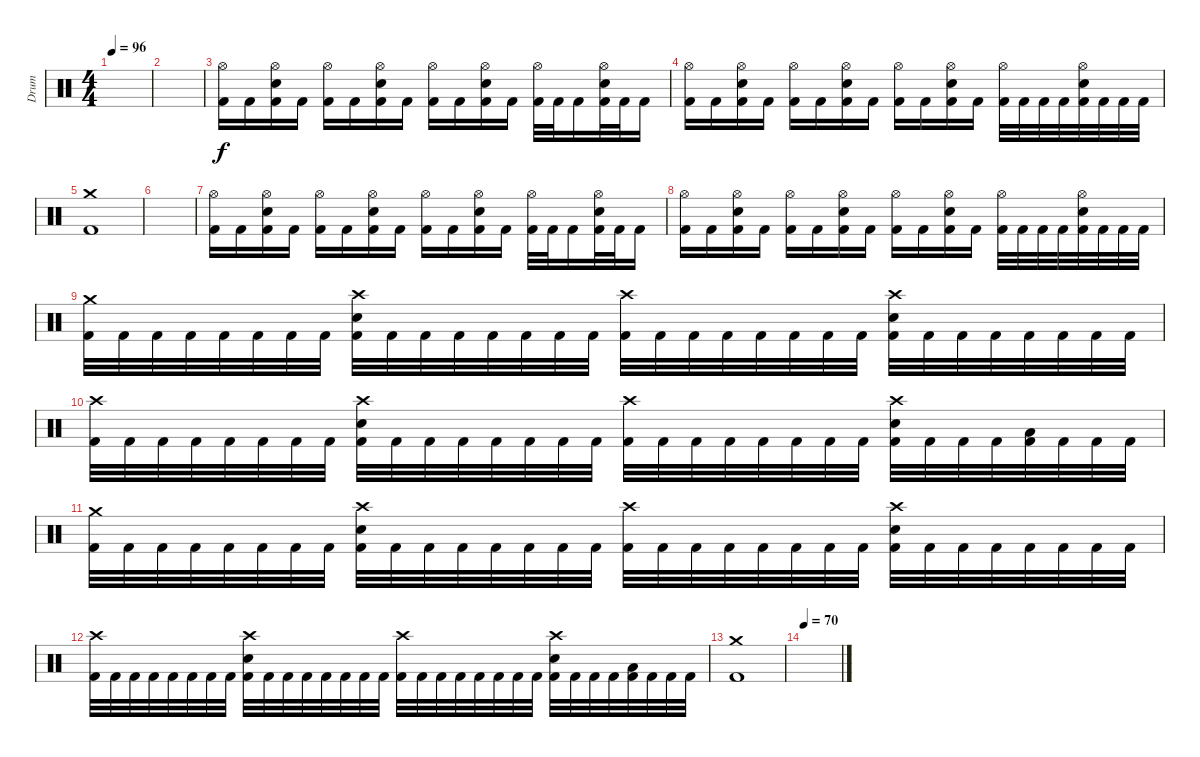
\track ("Drum" "Drum") {instrument percussion}
\staff {score}
\articulation defaults
\ts (4 4)
\tempo 96
\clef neutral
\ks c
|
|
("Hi-Hat (open)" "Kick (hit) 2").16 "Kick (hit) 2".16 ("Hi-Hat (open)" "Snare (hit) 2" "Kick (hit) 2").16 "Kick (hit) 2".16 ("Hi-Hat (open)" "Kick (hit) 2").16 "Kick (hit) 2".16 ("Hi-Hat (open)" "Snare (hit) 2" "Kick (hit) 2").16 "Kick (hit) 2".16 ("Hi-Hat (open)" "Kick (hit) 2").16 "Kick (hit) 2".16 ("Hi-Hat (open)" "Snare (hit) 2" "Kick (hit) 2").16 "Kick (hit) 2".16 ("Hi-Hat (open)" "Kick (hit) 2").32 "Kick (hit) 2".32 "Kick (hit) 2".16 ("Hi-Hat (open)" "Snare (hit) 2" "Kick (hit) 2").32 "Kick (hit) 2".32 "Kick (hit) 2".16 |
("Hi-Hat (open)" "Kick (hit) 2").16 "Kick (hit) 2".16 ("Hi-Hat (open)" "Snare (hit) 2" "Kick (hit) 2").16 "Kick (hit) 2".16 ("Hi-Hat (open)" "Kick (hit) 2").16 "Kick (hit) 2".16 ("Hi-Hat (open)" "Snare (hit) 2" "Kick (hit) 2").16 "Kick (hit) 2".16 ("Hi-Hat (open)" "Kick (hit) 2").16 "Kick (hit) 2".16 ("Hi-Hat (open)" "Snare (hit) 2" "Kick (hit) 2").16 "Kick (hit) 2".16 ("Hi-Hat (open)" "Kick (hit) 2").32 "Kick (hit) 2".32 "Kick (hit) 2".32 "Kick (hit) 2".32 ("Hi-Hat (open)" "Snare (hit) 2" "Kick (hit) 2").32 "Kick (hit) 2".32 "Kick (hit) 2".32 "Kick (hit) 2".32 |
("Crash medium (hit)" "Kick (hit) 2").1 |
|
("Hi-Hat (open)" "Kick (hit) 2").16 "Kick (hit) 2".16 ("Hi-Hat (open)" "Snare (hit) 2" "Kick (hit) 2").16 "Kick (hit) 2".16 ("Hi-Hat (open)" "Kick (hit) 2").16 "Kick (hit) 2".16 ("Hi-Hat (open)" "Snare (hit) 2" "Kick (hit) 2").16 "Kick (hit) 2".16 ("Hi-Hat (open)" "Kick (hit) 2").16 "Kick (hit) 2".16 ("Hi-Hat (open)" "Snare (hit) 2" "Kick (hit) 2").16 "Kick (hit) 2".16 ("Hi-Hat (open)" "Kick (hit) 2").32 "Kick (hit) 2".32 "Kick (hit) 2".16 ("Hi-Hat (open)" "Snare (hit) 2" "Kick (hit) 2").32 "Kick (hit) 2".32 "Kick (hit) 2".16 |
("Hi-Hat (open)" "Kick (hit) 2").16 "Kick (hit) 2".16 ("Hi-Hat (open)" "Snare (hit) 2" "Kick (hit) 2").16 "Kick (hit) 2".16 ("Hi-Hat (open)" "Kick (hit) 2").16 "Kick (hit) 2".16 ("Hi-Hat (open)" "Snare (hit) 2" "Kick (hit) 2").16 "Kick (hit) 2".16 ("Hi-Hat (open)" "Kick (hit) 2").16 "Kick (hit) 2".16 ("Hi-Hat (open)" "Snare (hit) 2" "Kick (hit) 2").16 "Kick (hit) 2".16 ("Hi-Hat (open)" "Kick (hit) 2").32 "Kick (hit) 2".32 "Kick (hit) 2".32 "Kick (hit) 2".32 ("Hi-Hat (open)" "Snare (hit) 2" "Kick (hit) 2").32 "Kick (hit) 2".32 "Kick (hit) 2".32 "Kick (hit) 2".32 |
("Crash medium (hit)" "Kick (hit) 2").32 "Kick (hit) 2".32 "Kick (hit) 2".32 "Kick (hit) 2".32 "Kick (hit) 2".32 "Kick (hit) 2".32 "Kick (hit) 2".32 "Kick (hit) 2".32 ("Crash high (hit)" "Snare (hit) 2" "Kick (hit) 2").32 "Kick (hit) 2".32 "Kick (hit) 2".32 "Kick (hit) 2".32 "Kick (hit) 2".32 "Kick (hit) 2".32 "Kick (hit) 2".32 "Kick (hit) 2".32 ("Crash high (hit)" "Kick (hit) 2").32 "Kick (hit) 2".32 "Kick (hit) 2".32 "Kick (hit) 2".32 "Kick (hit) 2".32 "Kick (hit) 2".32 "Kick (hit) 2".32 "Kick (hit) 2".32 ("Crash high (hit)" "Snare (hit) 2" "Kick (hit) 2").32 "Kick (hit) 2".32 "Kick (hit) 2".32 "Kick (hit) 2".32 "Kick (hit) 2".32 "Kick (hit) 2".32 "Kick (hit) 2".32 "Kick (hit) 2".32 |
("Crash high (hit)" "Kick (hit) 2").32 "Kick (hit) 2".32 "Kick (hit) 2".32 "Kick (hit) 2".32 "Kick (hit) 2".32 "Kick (hit) 2".32 "Kick (hit) 2".32 "Kick (hit) 2".32 ("Crash high (hit)" "Snare (hit) 2" "Kick (hit) 2").32 "Kick (hit) 2".32 "Kick (hit) 2".32 "Kick (hit) 2".32 "Kick (hit) 2".32 "Kick (hit) 2".32 "Kick (hit) 2".32 "Kick (hit) 2".32 ("Crash high (hit)" "Kick (hit) 2").32 "Kick (hit) 2".32 "Kick (hit) 2".32 "Kick (hit) 2".32 "Kick (hit) 2".32 "Kick (hit) 2".32 "Kick (hit) 2".32 "Kick (hit) 2".32 ("Crash high (hit)" "Snare (hit) 2" "Kick (hit) 2").32 "Kick (hit) 2".32 "Kick (hit) 2".32 "Kick (hit) 2".32 ("Low Tom (hit)" "Kick (hit) 2").32 "Kick (hit) 2".32 "Kick (hit) 2".32 "Kick (hit) 2".32 |
("Crash medium (hit)" "Kick (hit) 2").32 "Kick (hit) 2".32 "Kick (hit) 2".32 "Kick (hit) 2".32 "Kick (hit) 2".32 "Kick (hit) 2".32 "Kick (hit) 2".32 "Kick (hit) 2".32 ("Crash high (hit)" "Snare (hit) 2" "Kick (hit) 2").32 "Kick (hit) 2".32 "Kick (hit) 2".32 "Kick (hit) 2".32 "Kick (hit) 2".32 "Kick (hit) 2".32 "Kick (hit) 2".32 "Kick (hit) 2".32 ("Crash high (hit)" "Kick (hit) 2").32 "Kick (hit) 2".32 "Kick (hit) 2".32 "Kick (hit) 2".32 "Kick (hit) 2".32 "Kick (hit) 2".32 "Kick (hit) 2".32 "Kick (hit) 2".32 ("Crash high (hit)" "Snare (hit) 2" "Kick (hit) 2").32 "Kick (hit) 2".32 "Kick (hit) 2".32 "Kick (hit) 2".32 "Kick (hit) 2".32 "Kick (hit) 2".32 "Kick (hit) 2".32 "Kick (hit) 2".32 |
("Crash high (hit)" "Kick (hit) 2").32 "Kick (hit) 2".32 "Kick (hit) 2".32 "Kick (hit) 2".32 "Kick (hit) 2".32 "Kick (hit) 2".32 "Kick (hit) 2".32 "Kick (hit) 2".32 ("Crash high (hit)" "Snare (hit) 2" "Kick (hit) 2").32 "Kick (hit) 2".32 "Kick (hit) 2".32 "Kick (hit) 2".32 "Kick (hit) 2".32 "Kick (hit) 2".32 "Kick (hit) 2".32 "Kick (hit) 2".32 ("Crash high (hit)" "Kick (hit) 2").32 "Kick (hit) 2".32 "Kick (hit) 2".32 "Kick (hit) 2".32 "Kick (hit) 2".32 "Kick (hit) 2".32 "Kick (hit) 2".32 "Kick (hit) 2".32 ("Crash high (hit)" "Snare (hit) 2" "Kick (hit) 2").32 "Kick (hit) 2".32 "Kick (hit) 2".32 "Kick (hit) 2".32 ("Low Tom (hit)" "Kick (hit) 2").32 "Kick (hit) 2".32 "Kick (hit) 2".32 "Kick (hit) 2".32 |
("Crash medium (hit)" "Kick (hit) 2").1 |
\tempo 70
